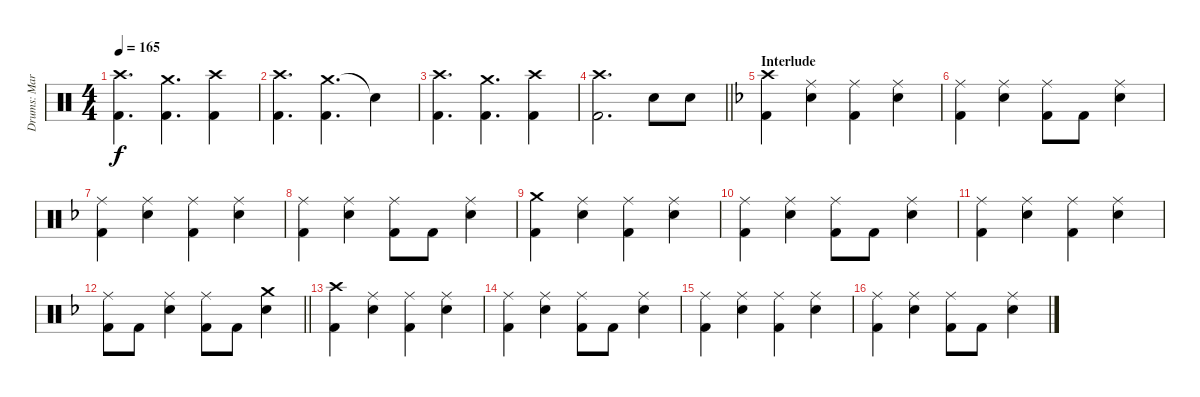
\track ("Drums: Martin Herzinger" "Drums: Mar") {instrument percussion}
\staff {score}
\articulation defaults
\ts (4 4)
\tempo 165
\clef neutral
\ks aminor
("Crash high (hit)" "Kick (hit) 2").4{d dy f} ("Crash medium (hit)" "Kick (hit) 2").4{d} ("Crash high (hit)" "Kick (hit) 2").4 |
("Crash high (hit)" "Kick (hit) 2").4{d} ("Crash medium (hit)" "Kick (hit) 2").4{d} "Snare (hit)"{t}.4 |
("Crash high (hit)" "Kick (hit) 2").4{d} ("Crash medium (hit)" "Kick (hit) 2").4{d} ("Crash high (hit)" "Kick (hit) 2").4 |
\barLineRight lightlight
("Crash high (hit)" "Kick (hit) 2").2{d} "Snare (hit) 2".8 "Snare (hit) 2".8 |
\section ("" "Interlude")
\ks dminor
("Crash high (hit)" "Kick (hit) 2").4 ("Ride (middle)" "Snare (hit) 2").4 ("Ride (middle)" "Kick (hit) 2").4 ("Ride (middle)" "Snare (hit) 2").4 |
("Ride (middle)" "Kick (hit) 2").4 ("Ride (middle)" "Snare (hit) 2").4 ("Ride (middle)" "Kick (hit) 2").8 "Kick (hit) 2".8 ("Ride (middle)" "Snare (hit) 2").4 |
("Ride (middle)" "Kick (hit) 2").4 ("Ride (middle)" "Snare (hit) 2").4 ("Ride (middle)" "Kick (hit) 2").4 ("Ride (middle)" "Snare (hit) 2").4 |
("Ride (middle)" "Kick (hit) 2").4 ("Ride (middle)" "Snare (hit) 2").4 ("Ride (middle)" "Kick (hit) 2").8 "Kick (hit) 2".8 ("Ride (middle)" "Snare (hit) 2").4 |
("Crash medium (hit)" "Kick (hit) 2").4 ("Ride (middle)" "Snare (hit) 2").4 ("Ride (middle)" "Kick (hit) 2").4 ("Ride (middle)" "Snare (hit) 2").4 |
("Ride (middle)" "Kick (hit) 2").4 ("Ride (middle)" "Snare (hit) 2").4 ("Ride (middle)" "Kick (hit) 2").8 "Kick (hit) 2".8 ("Ride (middle)" "Snare (hit) 2").4 |
("Ride (middle)" "Kick (hit) 2").4 ("Ride (middle)" "Snare (hit) 2").4 ("Ride (middle)" "Kick (hit) 2").4 ("Ride (middle)" "Snare (hit) 2").4 |
\barLineRight lightlight
("Ride (middle)" "Kick (hit) 2").8 "Kick (hit) 2".8 ("Ride (middle)" "Snare (hit) 2").4 ("Ride (middle)" "Kick (hit) 2").8 "Kick (hit) 2".8 ("Crash medium (hit)" "Snare (hit) 2").4 |
("Crash high (hit)" "Kick (hit) 2").4 ("Ride (middle)" "Snare (hit) 2").4 ("Ride (middle)" "Kick (hit) 2").4 ("Ride (middle)" "Snare (hit) 2").4 |
("Ride (middle)" "Kick (hit) 2").4 ("Ride (middle)" "Snare (hit) 2").4 ("Ride (middle)" "Kick (hit) 2").8 "Kick (hit) 2".8 ("Ride (middle)" "Snare (hit) 2").4 |
("Ride (middle)" "Kick (hit) 2").4 ("Ride (middle)" "Snare (hit) 2").4 ("Ride (middle)" "Kick (hit) 2").4 ("Ride (middle)" "Snare (hit) 2").4 |
("Ride (middle)" "Kick (hit) 2").4 ("Ride (middle)" "Snare (hit) 2").4 ("Ride (middle)" "Kick (hit) 2").8 "Kick (hit) 2".8 ("Ride (middle)" "Snare (hit) 2").4
